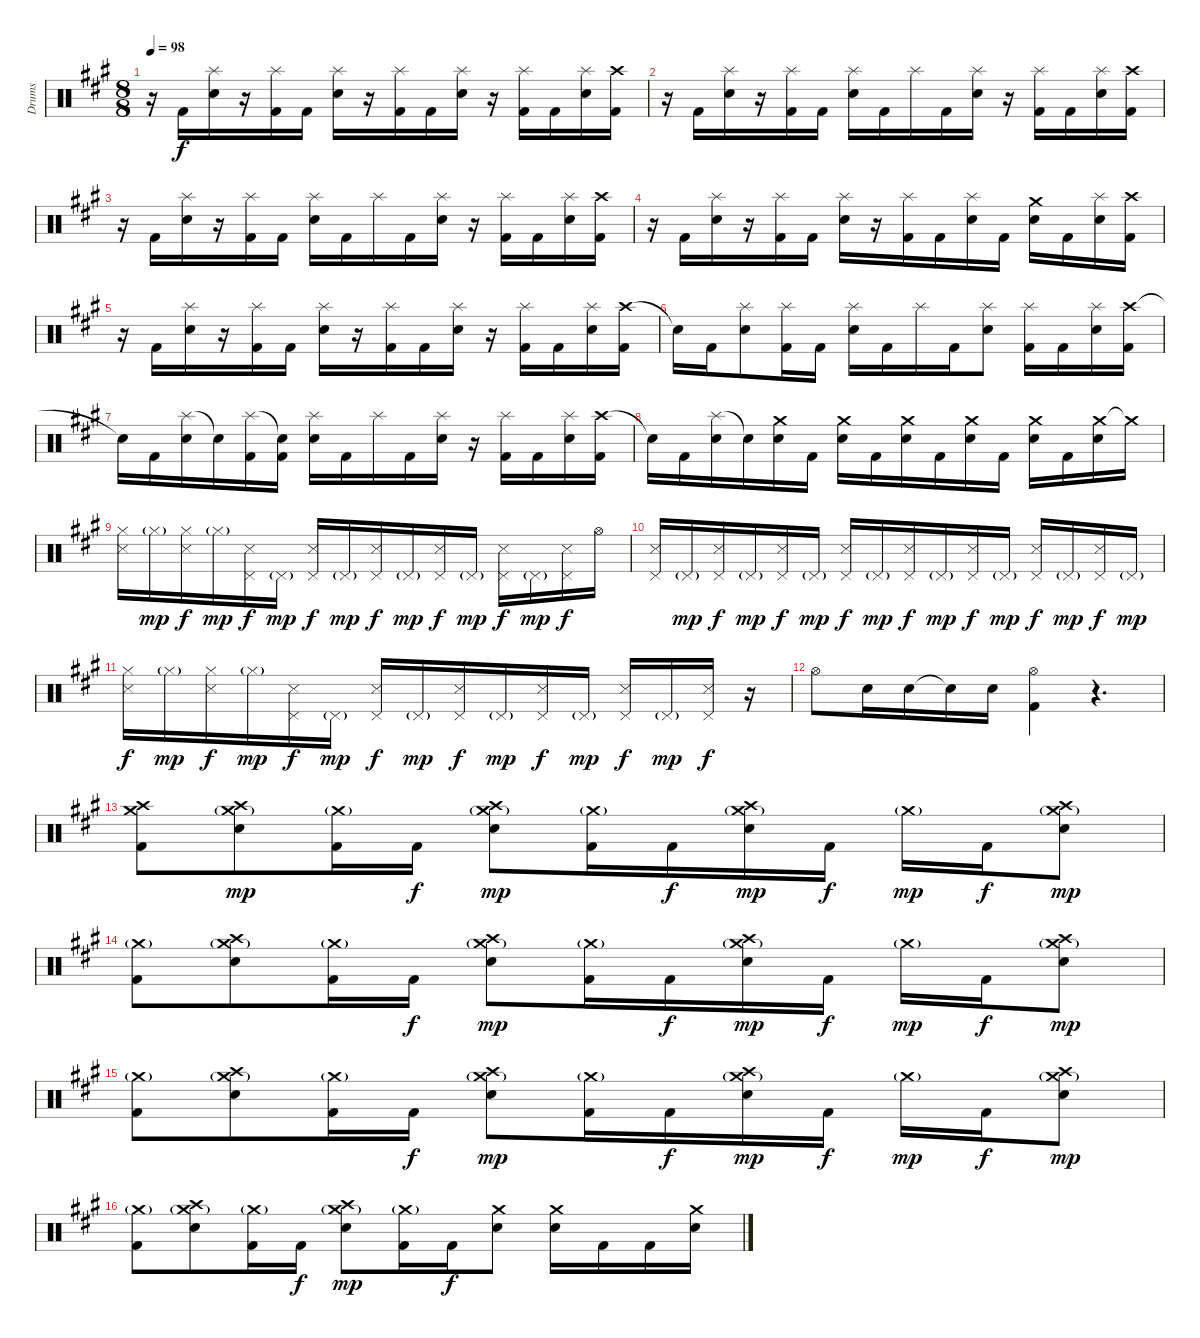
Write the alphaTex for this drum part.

\track ("Drums" "Drums") {instrument percussion}
\staff {score}
\articulation defaults
\ts (8 8)
\tempo 98
\clef neutral
\ks a
r.16{dy f} "Kick (hit) 2".16 ("Splash (hit)" "Snare (hit) 2").16 r.16 ("Splash (hit)" "Kick (hit) 2").16 "Kick (hit) 2".16 ("Splash (hit)" "Snare (hit) 2").16 r.16 ("Splash (hit)" "Kick (hit) 2").16 "Kick (hit) 2".16 ("Splash (hit)" "Snare (hit) 2").16 r.16 ("Splash (hit)" "Kick (hit) 2").16 "Kick (hit) 2".16 ("Splash (hit)" "Snare (hit) 2").16 ("Crash high (hit)" "Kick (hit) 2").16 |
r.16 "Kick (hit) 2".16 ("Splash (hit)" "Snare (hit) 2").16 r.16 ("Splash (hit)" "Kick (hit) 2").16 "Kick (hit) 2".16 ("Splash (hit)" "Snare (hit) 2").16 "Kick (hit) 2".16 "Splash (hit)".16 "Kick (hit) 2".16 ("Splash (hit)" "Snare (hit) 2").16 r.16 ("Splash (hit)" "Kick (hit) 2").16 "Kick (hit) 2".16 ("Splash (hit)" "Snare (hit) 2").16 ("Crash high (hit)" "Kick (hit) 2").16 |
r.16 "Kick (hit) 2".16 ("Splash (hit)" "Snare (hit) 2").16 r.16 ("Splash (hit)" "Kick (hit) 2").16 "Kick (hit) 2".16 ("Splash (hit)" "Snare (hit) 2").16 "Kick (hit) 2".16 "Splash (hit)".16 "Kick (hit) 2".16 ("Splash (hit)" "Snare (hit) 2").16 r.16 ("Splash (hit)" "Kick (hit) 2").16 "Kick (hit) 2".16 ("Splash (hit)" "Snare (hit) 2").16 ("Crash high (hit)" "Kick (hit) 2").16 |
r.16 "Kick (hit) 2".16 ("Splash (hit)" "Snare (hit) 2").16 r.16 ("Splash (hit)" "Kick (hit) 2").16 "Kick (hit) 2".16 ("Splash (hit)" "Snare (hit) 2").16 r.16 ("Splash (hit)" "Kick (hit) 2").16 "Kick (hit) 2".16 ("Splash (hit)" "Snare (hit) 2").16 "Kick (hit) 2".16 ("Crash medium (hit)" "Snare (hit) 2").16 "Kick (hit) 2".16 ("Splash (hit)" "Snare (hit) 2").16 ("Crash high (hit)" "Kick (hit) 2").16 |
r.16 "Kick (hit) 2".16 ("Splash (hit)" "Snare (hit) 2").16 r.16 ("Splash (hit)" "Kick (hit) 2").16 "Kick (hit) 2".16 ("Splash (hit)" "Snare (hit) 2").16 r.16 ("Splash (hit)" "Kick (hit) 2").16 "Kick (hit) 2".16 ("Splash (hit)" "Snare (hit) 2").16 r.16 ("Splash (hit)" "Kick (hit) 2").16 "Kick (hit) 2".16 ("Splash (hit)" "Snare (hit) 2").16 ("Crash high (hit)" "Kick (hit) 2").16 |
"Snare (hit)"{t}.16 "Kick (hit) 2".16 ("Splash (hit)" "Snare (hit) 2").8 ("Splash (hit)" "Kick (hit) 2").16 "Kick (hit) 2".16 ("Splash (hit)" "Snare (hit) 2").16 "Kick (hit) 2".16 "Splash (hit)".16 "Kick (hit) 2".16 ("Splash (hit)" "Snare (hit) 2").8 ("Splash (hit)" "Kick (hit) 2").16 "Kick (hit) 2".16 ("Splash (hit)" "Snare (hit) 2").16 ("Crash high (hit)" "Kick (hit) 2").16 |
"Snare (hit)"{t}.16 "Kick (hit) 2".16 ("Splash (hit)" "Snare (hit) 2").16 "Snare (hit)"{t}.16 ("Splash (hit)" "Kick (hit) 2").16 ("Snare (hit)"{t} "Kick (hit) 2").16 ("Splash (hit)" "Snare (hit) 2").16 "Kick (hit) 2".16 "Splash (hit)".16 "Kick (hit) 2".16 ("Splash (hit)" "Snare (hit) 2").16 r.16 ("Splash (hit)" "Kick (hit) 2").16 "Kick (hit) 2".16 ("Splash (hit)" "Snare (hit) 2").16 ("Crash high (hit)" "Kick (hit) 2").16 |
"Snare (hit)"{t}.16 "Kick (hit) 2".16 ("Splash (hit)" "Snare (hit) 2").16 "Snare (hit)"{t}.16 ("Crash medium (hit)" "Snare (hit) 2").16 "Kick (hit) 2".16 ("Crash medium (hit)" "Snare (hit) 2").16 "Kick (hit) 2".16 ("Crash medium (hit)" "Snare (hit) 2").16 "Kick (hit) 2".16 ("Crash medium (hit)" "Snare (hit) 2").16 "Kick (hit) 2".16 ("Crash medium (hit)" "Snare (hit) 2").16 "Kick (hit) 2".16 ("Crash medium (hit)" "Snare (hit) 2").16 "Crash medium (hit)"{t}.16 |
("Hi-Hat (closed)" "Snare (side stick) 3").16 "Hi-Hat (closed)"{g}.16{dy mp} ("Hi-Hat (closed)" "Snare (side stick) 3").16{dy f} "Hi-Hat (closed)"{g}.16{dy mp} ("Pedal Hi-Hat (hit)" "Snare (side stick) 3").16{dy f} "Pedal Hi-Hat (hit)"{g}.16{dy mp} ("Pedal Hi-Hat (hit)" "Snare (side stick) 3").16{dy f} "Pedal Hi-Hat (hit)"{g}.16{dy mp} ("Pedal Hi-Hat (hit)" "Snare (side stick) 3").16{dy f} "Pedal Hi-Hat (hit)"{g}.16{dy mp} ("Pedal Hi-Hat (hit)" "Snare (side stick) 3").16{dy f} "Pedal Hi-Hat (hit)"{g}.16{dy mp} ("Pedal Hi-Hat (hit)" "Snare (side stick) 3").16{dy f} "Pedal Hi-Hat (hit)"{g}.16{dy mp} ("Pedal Hi-Hat (hit)" "Snare (side stick) 3").16{dy f} "Hi-Hat (open)".16 |
("Pedal Hi-Hat (hit)" "Snare (side stick) 3").16 "Pedal Hi-Hat (hit)"{g}.16{dy mp} ("Pedal Hi-Hat (hit)" "Snare (side stick) 3").16{dy f} "Pedal Hi-Hat (hit)"{g}.16{dy mp} ("Pedal Hi-Hat (hit)" "Snare (side stick) 3").16{dy f} "Pedal Hi-Hat (hit)"{g}.16{dy mp} ("Pedal Hi-Hat (hit)" "Snare (side stick) 3").16{dy f} "Pedal Hi-Hat (hit)"{g}.16{dy mp} ("Pedal Hi-Hat (hit)" "Snare (side stick) 3").16{dy f} "Pedal Hi-Hat (hit)"{g}.16{dy mp} ("Pedal Hi-Hat (hit)" "Snare (side stick) 3").16{dy f} "Pedal Hi-Hat (hit)"{g}.16{dy mp} ("Pedal Hi-Hat (hit)" "Snare (side stick) 3").16{dy f} "Pedal Hi-Hat (hit)"{g}.16{dy mp} ("Pedal Hi-Hat (hit)" "Snare (side stick) 3").16{dy f} "Pedal Hi-Hat (hit)"{g}.16{dy mp} |
("Hi-Hat (closed)" "Snare (side stick) 3").16{dy f} "Hi-Hat (closed)"{g}.16{dy mp} ("Hi-Hat (closed)" "Snare (side stick) 3").16{dy f} "Hi-Hat (closed)"{g}.16{dy mp} ("Pedal Hi-Hat (hit)" "Snare (side stick) 3").16{dy f} "Pedal Hi-Hat (hit)"{g}.16{dy mp} ("Pedal Hi-Hat (hit)" "Snare (side stick) 3").16{dy f} "Pedal Hi-Hat (hit)"{g}.16{dy mp} ("Pedal Hi-Hat (hit)" "Snare (side stick) 3").16{dy f} "Pedal Hi-Hat (hit)"{g}.16{dy mp} ("Pedal Hi-Hat (hit)" "Snare (side stick) 3").16{dy f} "Pedal Hi-Hat (hit)"{g}.16{dy mp} ("Pedal Hi-Hat (hit)" "Snare (side stick) 3").16{dy f} "Pedal Hi-Hat (hit)"{g}.16{dy mp} ("Pedal Hi-Hat (hit)" "Snare (side stick) 3").16{dy f} r.16 |
"Hi-Hat (open)".8 "Snare (hit) 2".16 "Snare (hit) 2".16 "Snare (hit)"{t}.16 "Snare (hit) 2".16 ("Hi-Hat (open)" "Kick (hit) 2").4 r.4{d} |
("Crash high (hit)" "Crash medium (hit)" "Kick (hit) 2").8 ("Crash high (hit)" "Crash medium (hit)"{g} "Snare (hit) 2").8{dy mp} ("Crash medium (hit)"{g} "Kick (hit) 2").16 "Kick (hit) 2".16{dy f} ("Crash high (hit)" "Crash medium (hit)"{g} "Snare (hit) 2").8{dy mp} ("Crash medium (hit)"{g} "Kick (hit) 2").16 "Kick (hit) 2".16{dy f} ("Crash high (hit)" "Crash medium (hit)"{g} "Snare (hit) 2").16{dy mp} "Kick (hit) 2".16{dy f} "Crash medium (hit)"{g}.16{dy mp} "Kick (hit) 2".16{dy f} ("Crash high (hit)" "Crash medium (hit)"{g} "Snare (hit) 2").8{dy mp} |
("Crash medium (hit)"{g} "Kick (hit) 2").8 ("Crash high (hit)" "Crash medium (hit)"{g} "Snare (hit) 2").8 ("Crash medium (hit)"{g} "Kick (hit) 2").16 "Kick (hit) 2".16{dy f} ("Crash high (hit)" "Crash medium (hit)"{g} "Snare (hit) 2").8{dy mp} ("Crash medium (hit)"{g} "Kick (hit) 2").16 "Kick (hit) 2".16{dy f} ("Crash high (hit)" "Crash medium (hit)"{g} "Snare (hit) 2").16{dy mp} "Kick (hit) 2".16{dy f} "Crash medium (hit)"{g}.16{dy mp} "Kick (hit) 2".16{dy f} ("Crash high (hit)" "Crash medium (hit)"{g} "Snare (hit) 2").8{dy mp} |
("Crash medium (hit)"{g} "Kick (hit) 2").8 ("Crash high (hit)" "Crash medium (hit)"{g} "Snare (hit) 2").8 ("Crash medium (hit)"{g} "Kick (hit) 2").16 "Kick (hit) 2".16{dy f} ("Crash high (hit)" "Crash medium (hit)"{g} "Snare (hit) 2").8{dy mp} ("Crash medium (hit)"{g} "Kick (hit) 2").16 "Kick (hit) 2".16{dy f} ("Crash high (hit)" "Crash medium (hit)"{g} "Snare (hit) 2").16{dy mp} "Kick (hit) 2".16{dy f} "Crash medium (hit)"{g}.16{dy mp} "Kick (hit) 2".16{dy f} ("Crash high (hit)" "Crash medium (hit)"{g} "Snare (hit) 2").8{dy mp} |
("Crash medium (hit)"{g} "Kick (hit) 2").8 ("Crash high (hit)" "Crash medium (hit)"{g} "Snare (hit) 2").8 ("Crash medium (hit)"{g} "Kick (hit) 2").16 "Kick (hit) 2".16{dy f} ("Crash high (hit)" "Crash medium (hit)"{g} "Snare (hit) 2").8{dy mp} ("Crash medium (hit)"{g} "Kick (hit) 2").16 "Kick (hit) 2".16{dy f} ("Crash medium (hit)" "Snare (hit) 2").8 ("Crash medium (hit)" "Snare (hit) 2").16 "Kick (hit) 2".16 "Kick (hit) 2".16 ("Crash medium (hit)" "Snare (hit) 2").16
